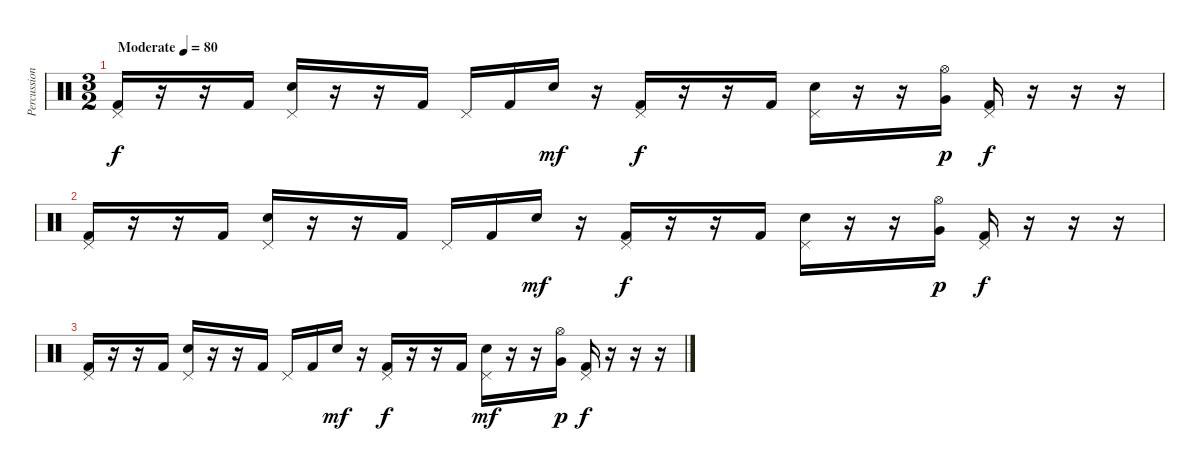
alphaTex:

\track ("Percussion" "Percussion") {instrument percussion}
\staff {score}
\articulation defaults
\ts (3 2)
\tempo (80 "Moderate")
\clef neutral
\ks c
("Pedal Hi-Hat (hit)" "Kick (hit) 2").16{dy f} r.16 r.16 "Kick (hit) 2".16 ("Snare (hit) 2" "Pedal Hi-Hat (hit)").16 r.16 r.16 "Kick (hit) 2".16 "Pedal Hi-Hat (hit)".16 "Kick (hit) 2".16 "Snare (hit) 2".16{dy mf} r.16 ("Pedal Hi-Hat (hit)" "Kick (hit) 2").16{dy f} r.16 r.16 "Kick (hit) 2".16 ("Snare (hit) 2" "Pedal Hi-Hat (hit)").16 r.16 r.16 ("Hi-Hat (open)" "Very Low Tom (hit)").16{dy p} ("Pedal Hi-Hat (hit)" "Kick (hit) 2").16{dy f} r.16 r.16 r.16 |
("Pedal Hi-Hat (hit)" "Kick (hit) 2").16 r.16 r.16 "Kick (hit) 2".16 ("Snare (hit) 2" "Pedal Hi-Hat (hit)").16 r.16 r.16 "Kick (hit) 2".16 "Pedal Hi-Hat (hit)".16 "Kick (hit) 2".16 "Snare (hit) 2".16{dy mf} r.16 ("Pedal Hi-Hat (hit)" "Kick (hit) 2").16{dy f} r.16 r.16 "Kick (hit) 2".16 ("Snare (hit) 2" "Pedal Hi-Hat (hit)").16 r.16 r.16 ("Hi-Hat (open)" "Very Low Tom (hit)").16{dy p} ("Pedal Hi-Hat (hit)" "Kick (hit) 2").16{dy f} r.16 r.16 r.16 |
("Pedal Hi-Hat (hit)" "Kick (hit) 2").16 r.16 r.16 "Kick (hit) 2".16 ("Snare (hit) 2" "Pedal Hi-Hat (hit)").16 r.16 r.16 "Kick (hit) 2".16 "Pedal Hi-Hat (hit)".16 "Kick (hit) 2".16 "Snare (hit) 2".16{dy mf} r.16 ("Pedal Hi-Hat (hit)" "Kick (hit) 2").16{dy f} r.16 r.16 "Kick (hit) 2".16 ("Snare (hit) 2" "Pedal Hi-Hat (hit)").16{dy mf} r.16 r.16 ("Hi-Hat (open)" "Very Low Tom (hit)").16{dy p} ("Pedal Hi-Hat (hit)" "Kick (hit) 2").16{dy f} r.16 r.16 r.16
